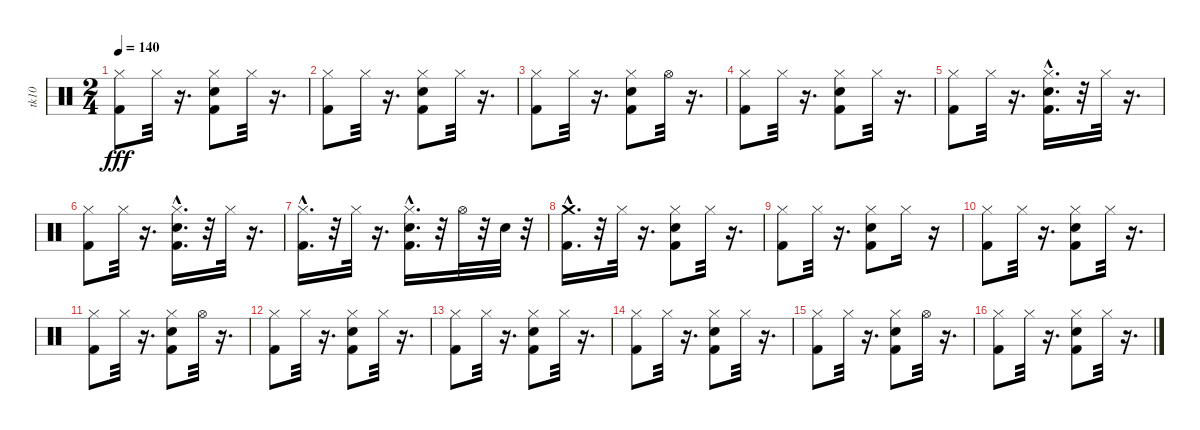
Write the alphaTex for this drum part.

\track ("tk10" "tk10") {instrument percussion}
\staff {score}
\articulation defaults
\ts (2 4)
\tempo 140
\clef neutral
\ks c
("Kick (hit) 2" "Hi-Hat (closed)").8{dy fff} "Hi-Hat (closed)".32 r.16{d} ("Snare (hit) 2" "Kick (hit) 2" "Hi-Hat (closed)").8 "Hi-Hat (closed)".32 r.16{d} |
("Kick (hit) 2" "Hi-Hat (closed)").8 "Hi-Hat (closed)".32 r.16{d} ("Snare (hit) 2" "Kick (hit) 2" "Hi-Hat (closed)").8 "Hi-Hat (closed)".32 r.16{d} |
("Kick (hit) 2" "Hi-Hat (closed)").8 "Hi-Hat (closed)".32 r.16{d} ("Snare (hit) 2" "Kick (hit) 2" "Hi-Hat (closed)").8 "Hi-Hat (open)".32 r.16{d} |
("Kick (hit) 2" "Hi-Hat (closed)").8 "Hi-Hat (closed)".32 r.16{d} ("Hi-Hat (closed)" "Snare (hit) 2" "Kick (hit) 2").8 "Hi-Hat (closed)".32 r.16{d} |
("Kick (hit) 2" "Hi-Hat (closed)").8 "Hi-Hat (closed)".32 r.16{d} ("Snare (hit) 2"{hac} "Kick (hit) 2"{hac} "Hi-Hat (closed)").16{d} r.32 "Hi-Hat (closed)".32 r.16{d} |
("Kick (hit) 2" "Hi-Hat (closed)").8 "Hi-Hat (closed)".32 r.16{d} ("Snare (hit) 2"{hac} "Kick (hit) 2"{hac} "Hi-Hat (closed)").16{d} r.32 "Hi-Hat (closed)".32 r.16{d} |
("Kick (hit) 2"{hac} "Hi-Hat (closed)").16{d} r.32 "Hi-Hat (closed)".32 r.16{d} ("Snare (hit) 2"{hac} "Kick (hit) 2"{hac} "Hi-Hat (closed)").16{d} r.32 "Hi-Hat (open)".32 r.32 "Snare (hit) 2".32 r.32 |
("Kick (hit) 2"{hac} "Crash medium (hit)").16{d} r.32 "Hi-Hat (closed)".32 r.16{d} ("Kick (hit) 2" "Snare (hit) 2" "Hi-Hat (closed)").8 "Hi-Hat (closed)".32 r.16{d} |
("Kick (hit) 2" "Hi-Hat (closed)").8 "Hi-Hat (closed)".32 r.16{d} ("Kick (hit) 2" "Hi-Hat (closed)" "Snare (hit) 2").8 "Hi-Hat (closed)".16 r.16 |
("Kick (hit) 2" "Hi-Hat (closed)").8 "Hi-Hat (closed)".32 r.16{d} ("Snare (hit) 2" "Kick (hit) 2" "Hi-Hat (closed)").8 "Hi-Hat (closed)".32 r.16{d} |
("Kick (hit) 2" "Hi-Hat (closed)").8 "Hi-Hat (closed)".32 r.16{d} ("Snare (hit) 2" "Hi-Hat (closed)" "Kick (hit) 2").8 "Hi-Hat (open)".32 r.16{d} |
("Kick (hit) 2" "Hi-Hat (closed)").8 "Hi-Hat (closed)".32 r.16{d} ("Hi-Hat (closed)" "Snare (hit) 2" "Kick (hit) 2").8 "Hi-Hat (closed)".32 r.16{d} |
("Kick (hit) 2" "Hi-Hat (closed)").8 "Hi-Hat (closed)".32 r.16{d} ("Snare (hit) 2" "Kick (hit) 2" "Hi-Hat (closed)").8 "Hi-Hat (closed)".32 r.16{d} |
("Kick (hit) 2" "Hi-Hat (closed)").8 "Hi-Hat (closed)".32 r.16{d} ("Hi-Hat (closed)" "Snare (hit) 2" "Kick (hit) 2").8 "Hi-Hat (closed)".32 r.16{d} |
("Kick (hit) 2" "Hi-Hat (closed)").8 "Hi-Hat (closed)".32 r.16{d} ("Kick (hit) 2" "Snare (hit) 2" "Hi-Hat (closed)").8 "Hi-Hat (open)".32 r.16{d} |
("Kick (hit) 2" "Hi-Hat (closed)").8 "Hi-Hat (closed)".32 r.16{d} ("Kick (hit) 2" "Hi-Hat (closed)" "Snare (hit) 2").8 "Hi-Hat (closed)".32 r.16{d}
